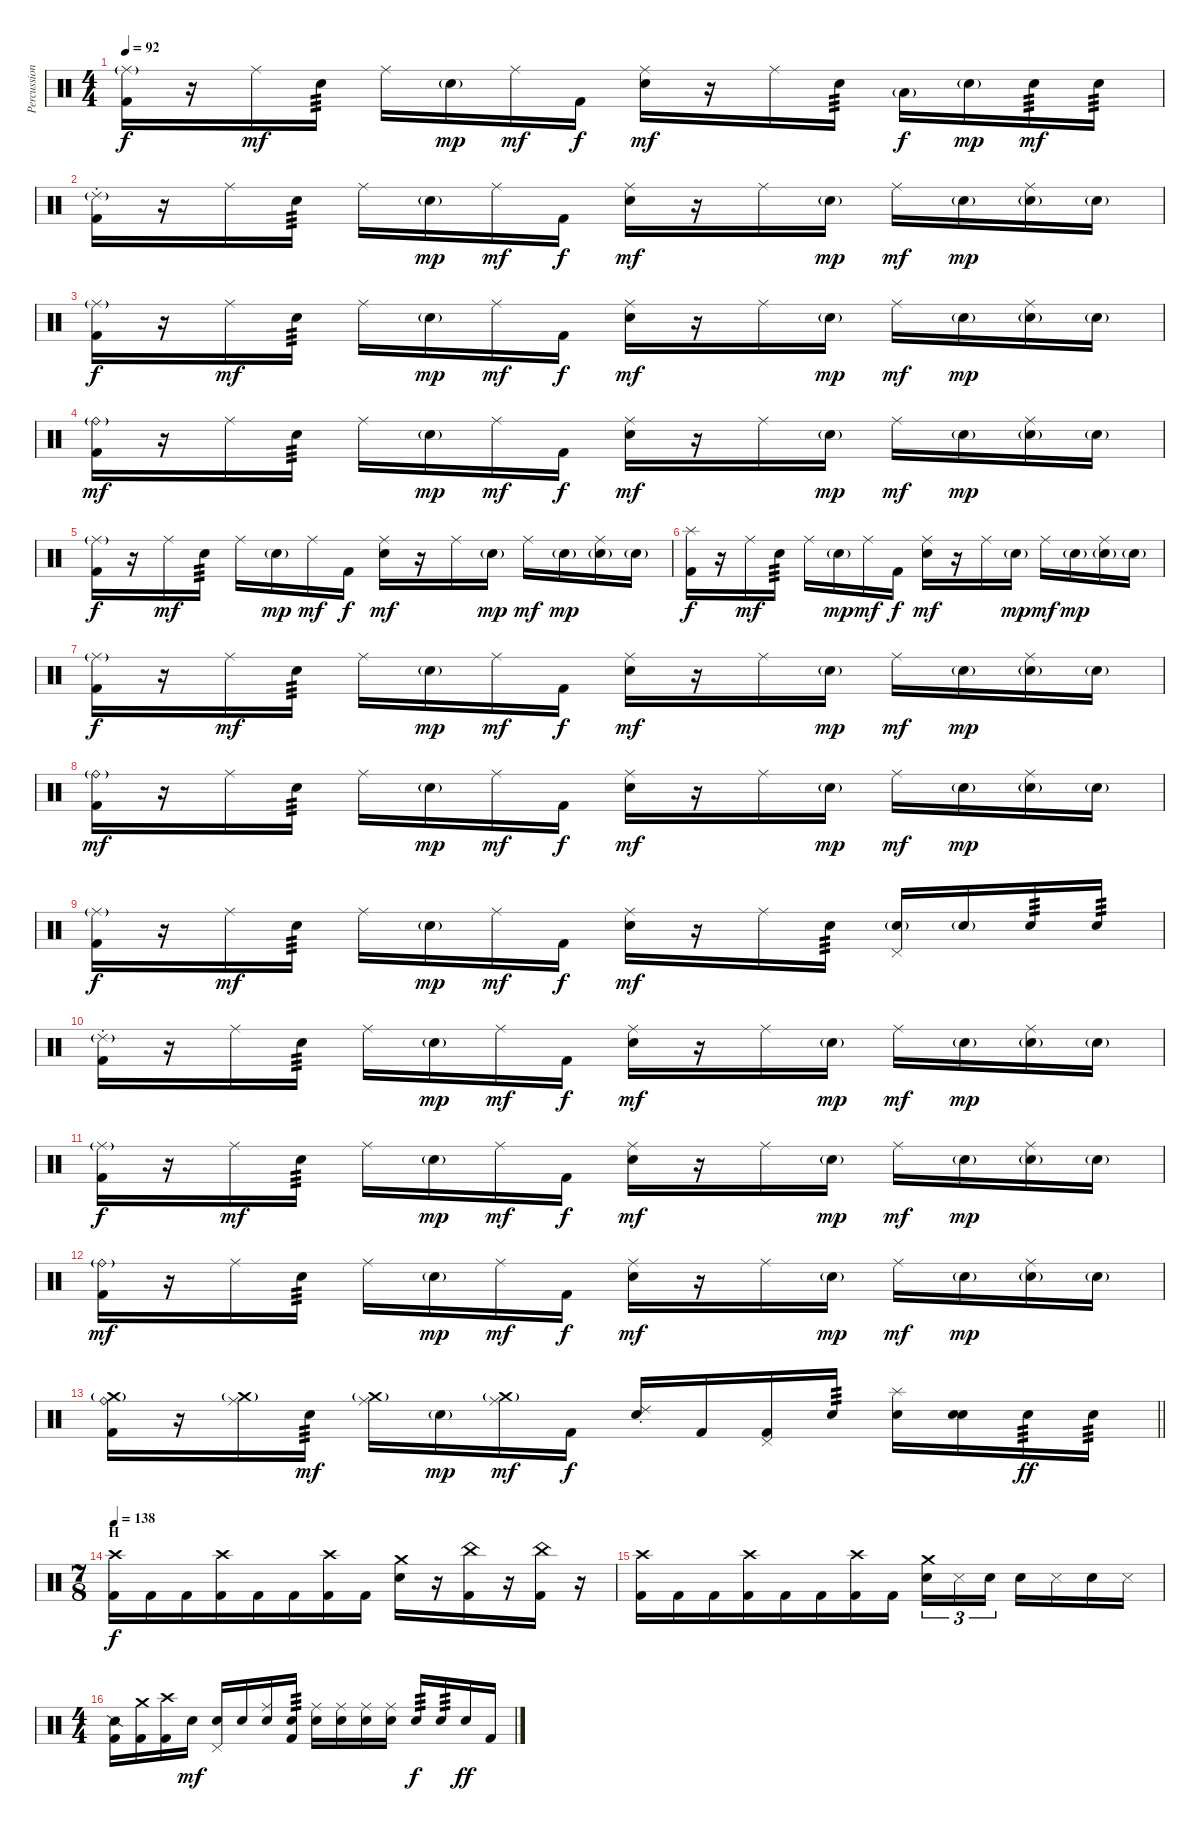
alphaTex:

\track ("Percussion" "Percussion") {instrument percussion}
\staff {score}
\articulation defaults
\ts (4 4)
\tempo 92
\clef neutral
\ks c
("Ride (middle)"{g} "Kick (hit) 2").16{dy f} r.16 "Ride (middle)".16{dy mf} "Snare (hit) 2".16{tp 3} "Ride (middle)".16 "Snare (hit) 2"{g}.16{dy mp} "Ride (middle)".16{dy mf} "Kick (hit) 2".16{dy f} ("Ride (middle)" "Snare (hit) 2").16{dy mf} r.16 "Ride (middle)".16 "Snare (hit) 2".16{tp 3} "Low Tom (hit)"{g}.16{dy f} "Snare (hit) 2"{g}.16{dy mp} "Snare (hit) 2".16{tp 3 dy mf} "Snare (hit) 2".16{tp 3} |
("Ride (choke) 2"{g} "Kick (hit) 2").16 r.16 "Ride (middle)".16 "Snare (hit) 2".16{tp 3} "Ride (middle)".16 "Snare (hit) 2"{g}.16{dy mp} "Ride (middle)".16{dy mf} "Kick (hit) 2".16{dy f} ("Ride (middle)" "Snare (hit) 2").16{dy mf} r.16 "Ride (middle)".16 "Snare (hit) 2"{g}.16{dy mp} "Ride (middle)".16{dy mf} "Snare (hit) 2"{g}.16{dy mp} ("Ride (middle)" "Snare (hit) 2"{g}).16 "Snare (hit) 2"{g}.16 |
("Ride (middle)"{g} "Kick (hit) 2").16{dy f} r.16 "Ride (middle)".16{dy mf} "Snare (hit) 2".16{tp 3} "Ride (middle)".16 "Snare (hit) 2"{g}.16{dy mp} "Ride (middle)".16{dy mf} "Kick (hit) 2".16{dy f} ("Ride (middle)" "Snare (hit) 2").16{dy mf} r.16 "Ride (middle)".16 "Snare (hit) 2"{g}.16{dy mp} "Ride (middle)".16{dy mf} "Snare (hit) 2"{g}.16{dy mp} ("Ride (middle)" "Snare (hit) 2"{g}).16 "Snare (hit) 2"{g}.16 |
("Ride (bell)"{g} "Kick (hit) 2").16{dy mf} r.16 "Ride (middle)".16 "Snare (hit) 2".16{tp 3} "Ride (middle)".16 "Snare (hit) 2"{g}.16{dy mp} "Ride (middle)".16{dy mf} "Kick (hit) 2".16{dy f} ("Ride (middle)" "Snare (hit) 2").16{dy mf} r.16 "Ride (middle)".16 "Snare (hit) 2"{g}.16{dy mp} "Ride (middle)".16{dy mf} "Snare (hit) 2"{g}.16{dy mp} ("Ride (middle)" "Snare (hit) 2"{g}).16 "Snare (hit) 2"{g}.16 |
("Ride (middle)"{g} "Kick (hit) 2").16{dy f} r.16 "Ride (middle)".16{dy mf} "Snare (hit) 2".16{tp 3} "Ride (middle)".16 "Snare (hit) 2"{g}.16{dy mp} "Ride (middle)".16{dy mf} "Kick (hit) 2".16{dy f} ("Ride (middle)" "Snare (hit) 2").16{dy mf} r.16 "Ride (middle)".16 "Snare (hit) 2"{g}.16{dy mp} "Ride (middle)".16{dy mf} "Snare (hit) 2"{g}.16{dy mp} ("Ride (middle)" "Snare (hit) 2"{g}).16 "Snare (hit) 2"{g}.16 |
("Splash (hit)" "Kick (hit) 2").16{dy f} r.16 "Ride (middle)".16{dy mf} "Snare (hit) 2".16{tp 3} "Ride (middle)".16 "Snare (hit) 2"{g}.16{dy mp} "Ride (middle)".16{dy mf} "Kick (hit) 2".16{dy f} ("Ride (middle)" "Snare (hit) 2").16{dy mf} r.16 "Ride (middle)".16 "Snare (hit) 2"{g}.16{dy mp} "Ride (middle)".16{dy mf} "Snare (hit) 2"{g}.16{dy mp} ("Ride (middle)" "Snare (hit) 2"{g}).16 "Snare (hit) 2"{g}.16 |
("Ride (middle)"{g} "Kick (hit) 2").16{dy f} r.16 "Ride (middle)".16{dy mf} "Snare (hit) 2".16{tp 3} "Ride (middle)".16 "Snare (hit) 2"{g}.16{dy mp} "Ride (middle)".16{dy mf} "Kick (hit) 2".16{dy f} ("Ride (middle)" "Snare (hit) 2").16{dy mf} r.16 "Ride (middle)".16 "Snare (hit) 2"{g}.16{dy mp} "Ride (middle)".16{dy mf} "Snare (hit) 2"{g}.16{dy mp} ("Ride (middle)" "Snare (hit) 2"{g}).16 "Snare (hit) 2"{g}.16 |
("Ride (bell)"{g} "Kick (hit) 2").16{dy mf} r.16 "Ride (middle)".16 "Snare (hit) 2".16{tp 3} "Ride (middle)".16 "Snare (hit) 2"{g}.16{dy mp} "Ride (middle)".16{dy mf} "Kick (hit) 2".16{dy f} ("Ride (middle)" "Snare (hit) 2").16{dy mf} r.16 "Ride (middle)".16 "Snare (hit) 2"{g}.16{dy mp} "Ride (middle)".16{dy mf} "Snare (hit) 2"{g}.16{dy mp} ("Ride (middle)" "Snare (hit) 2"{g}).16 "Snare (hit) 2"{g}.16 |
("Ride (middle)"{g} "Kick (hit) 2").16{dy f} r.16 "Ride (middle)".16{dy mf} "Snare (hit) 2".16{tp 3} "Ride (middle)".16 "Snare (hit) 2"{g}.16{dy mp} "Ride (middle)".16{dy mf} "Kick (hit) 2".16{dy f} ("Ride (middle)" "Snare (hit) 2").16{dy mf} r.16 "Ride (middle)".16 "Snare (hit) 2".16{tp 3} ("Pedal Hi-Hat (hit)" "Snare (hit) 2"{g}).16 "Snare (hit) 2"{g}.16 "Snare (hit) 2".16{tp 3} "Snare (hit) 2".16{tp 3} |
("Ride (choke) 2"{g} "Kick (hit) 2").16 r.16 "Ride (middle)".16 "Snare (hit) 2".16{tp 3} "Ride (middle)".16 "Snare (hit) 2"{g}.16{dy mp} "Ride (middle)".16{dy mf} "Kick (hit) 2".16{dy f} ("Ride (middle)" "Snare (hit) 2").16{dy mf} r.16 "Ride (middle)".16 "Snare (hit) 2"{g}.16{dy mp} "Ride (middle)".16{dy mf} "Snare (hit) 2"{g}.16{dy mp} ("Ride (middle)" "Snare (hit) 2"{g}).16 "Snare (hit) 2"{g}.16 |
("Ride (middle)"{g} "Kick (hit) 2").16{dy f} r.16 "Ride (middle)".16{dy mf} "Snare (hit) 2".16{tp 3} "Ride (middle)".16 "Snare (hit) 2"{g}.16{dy mp} "Ride (middle)".16{dy mf} "Kick (hit) 2".16{dy f} ("Ride (middle)" "Snare (hit) 2").16{dy mf} r.16 "Ride (middle)".16 "Snare (hit) 2"{g}.16{dy mp} "Ride (middle)".16{dy mf} "Snare (hit) 2"{g}.16{dy mp} ("Ride (middle)" "Snare (hit) 2"{g}).16 "Snare (hit) 2"{g}.16 |
("Ride (bell)"{g} "Kick (hit) 2").16{dy mf} r.16 "Ride (middle)".16 "Snare (hit) 2".16{tp 3} "Ride (middle)".16 "Snare (hit) 2"{g}.16{dy mp} "Ride (middle)".16{dy mf} "Kick (hit) 2".16{dy f} ("Ride (middle)" "Snare (hit) 2").16{dy mf} r.16 "Ride (middle)".16 "Snare (hit) 2"{g}.16{dy mp} "Ride (middle)".16{dy mf} "Snare (hit) 2"{g}.16{dy mp} ("Ride (middle)" "Snare (hit) 2"{g}).16 "Snare (hit) 2"{g}.16 |
\barLineRight lightlight
("Ride (bell)" "Crash medium (hit)"{g} "Kick (hit) 2").16 r.16 ("Ride (middle)" "Crash medium (hit)"{g}).16 "Snare (hit) 2".16{tp 3 dy mf} ("Ride (middle)" "Crash medium (hit)"{g}).16 "Snare (hit) 2"{g}.16{dy mp} ("Ride (middle)" "Crash medium (hit)"{g}).16{dy mf} "Kick (hit) 2".16{dy f} ("Ride (choke) 2" "Snare (hit) 2").16 "Kick (hit) 2".16 ("Pedal Hi-Hat (hit)" "Kick (hit) 2").16 "Snare (hit) 2".16{tp 3} ("Splash (hit)" "Snare (hit) 2").16 ("Snare (hit)" "Snare (hit) 2").16 "Snare (hit) 2".16{tp 3 dy ff} "Snare (hit) 2".16{tp 3} |
\ts (7 8)
\section ("" "H")
\tempo 138
("Crash high (hit)" "Kick (hit) 2").16{dy f} "Kick (hit) 2".16 "Kick (hit) 2".16 ("Crash high (hit)" "Kick (hit) 2").16 "Kick (hit) 2".16 "Kick (hit) 2".16 ("Crash high (hit)" "Kick (hit) 2").16 "Kick (hit) 2".16 ("Crash medium (hit)" "Snare (hit) 2").16 r.16 ("China (hit)" "Kick (hit) 2").16 r.16 ("China (hit)" "Kick (hit) 2").16 r.16 |
("Crash high (hit)" "Kick (hit) 2").16 "Kick (hit) 2".16 "Kick (hit) 2".16 ("Crash high (hit)" "Kick (hit) 2").16 "Kick (hit) 2".16 "Kick (hit) 2".16 ("Crash high (hit)" "Kick (hit) 2").16 "Kick (hit) 2".16 ("Crash medium (hit)" "Snare (hit) 2").16{tu (3 2)} "Metronome (hit)".16{tu (3 2)} "Snare (hit) 2".16{tu (3 2)} "Snare (hit) 2".16 "Metronome (hit)".16 "Snare (hit) 2".16 "Metronome (hit)".16 |
\ts (4 4)
("Snare (side stick) 2" "Kick (hit) 2").16 ("Crash medium (hit)" "Kick (hit) 2").16 ("Crash high (hit)" "Kick (hit) 2").16 "Snare (hit) 2".16{dy mf} ("Pedal Hi-Hat (hit)" "Snare (hit) 2").16 "Snare (hit) 2".16 ("Ride (middle)" "Snare (hit) 2").16 ("Snare (hit) 2" "Kick (hit) 2").16{tp 3} ("Ride (middle)" "Snare (hit) 2").16 ("Ride (middle)" "Snare (hit) 2").16 ("Ride (middle)" "Snare (hit) 2").16 ("Ride (middle)" "Snare (hit) 2").16 "Snare (hit) 2".16{tp 3 dy f} "Snare (hit) 2".16{tp 3} "Snare (hit) 2".16{dy ff} "Kick (hit) 2".16
